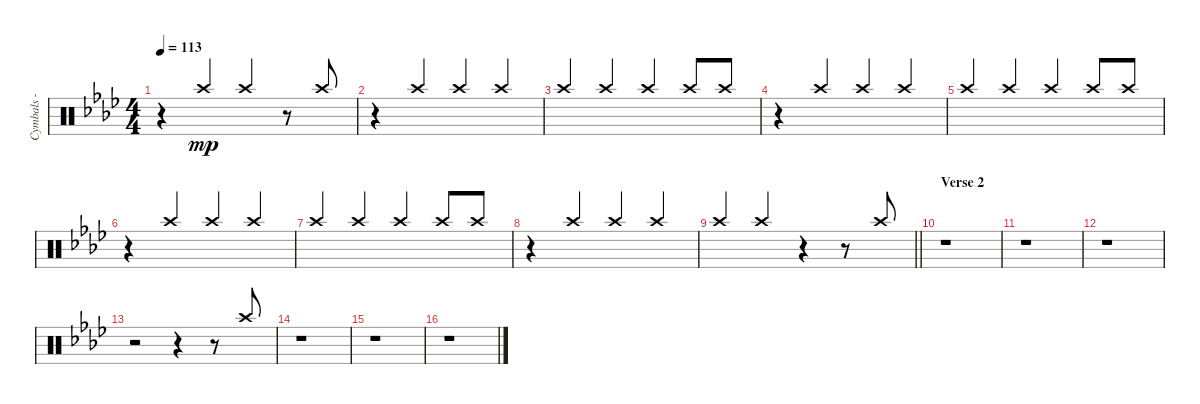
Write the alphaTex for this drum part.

\track ("Cymbals - crash" "Cymbals - ") {instrument percussion}
\staff {score}
\articulation defaults
\ts (4 4)
\tempo 113
\clef neutral
\ks fminor
r.4{dy mp} "Crash high (hit)".4{volume 9 balance 5 beam Up} "Crash high (hit)".4{beam Up} r.8 "Crash high (hit)".8{volume 13 balance 8 beam Up} |
r.4 "Crash high (hit)".4{beam Up} "Crash high (hit)".4{volume 9 balance 5 beam Up} "Crash high (hit)".4{beam Up} |
"Crash high (hit)".4{beam Up} "Crash high (hit)".4{beam Up} "Crash high (hit)".4{beam Up} "Crash high (hit)".8{beam Up} "Crash high (hit)".8{beam Up} |
r.4 "Crash high (hit)".4{beam Up} "Crash high (hit)".4{beam Up} "Crash high (hit)".4{beam Up} |
"Crash high (hit)".4{beam Up} "Crash high (hit)".4{beam Up} "Crash high (hit)".4{beam Up} "Crash high (hit)".8{beam Up} "Crash high (hit)".8{beam Up} |
r.4 "Crash high (hit)".4{beam Up} "Crash high (hit)".4{beam Up} "Crash high (hit)".4{beam Up} |
"Crash high (hit)".4{beam Up} "Crash high (hit)".4{beam Up} "Crash high (hit)".4{beam Up} "Crash high (hit)".8{beam Up} "Crash high (hit)".8{beam Up} |
r.4 "Crash high (hit)".4{beam Up} "Crash high (hit)".4{beam Up} "Crash high (hit)".4{beam Up} |
\barLineRight lightlight "Crash high (hit)".4{beam Up} "Crash high (hit)".4{beam Up}
r.4{beam Up} r.8 "Crash high (hit)".8{beam Up} |
\section ("" "Verse 2")
r.1 |
r.1 |
r.1 |
r.2 r.4 r.8 "Crash high (hit)".8{beam Up} |
r.1 |
r.1 |
r.1
